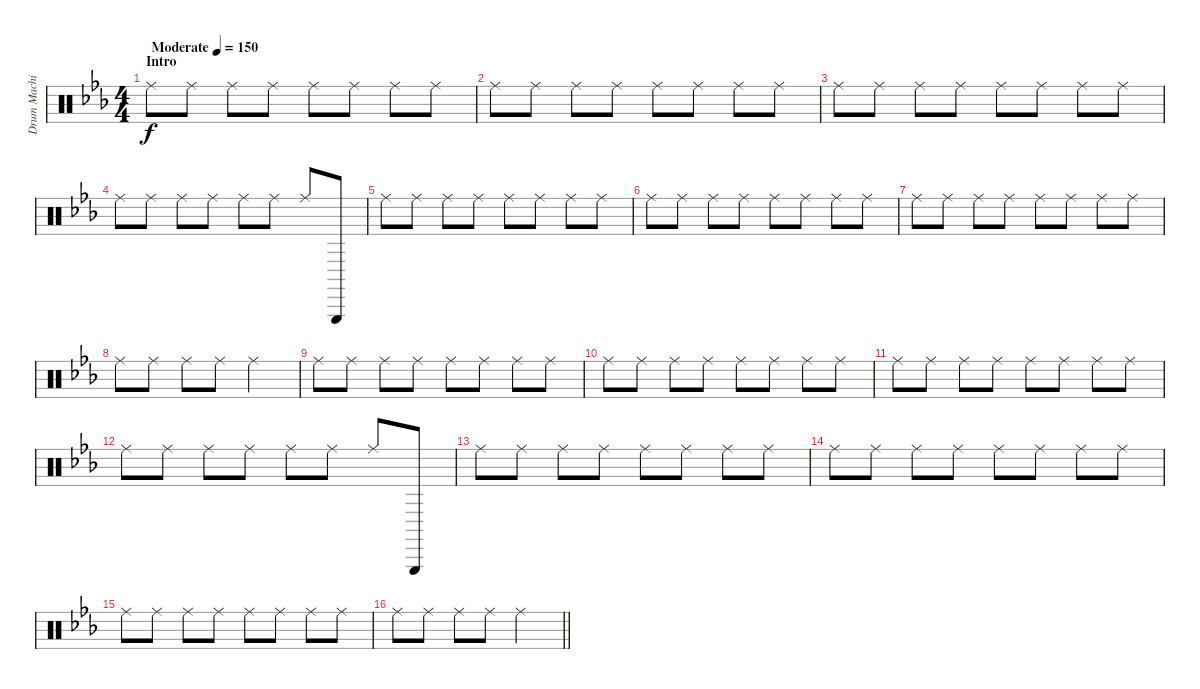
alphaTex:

\track ("Drum Machine" "Drum Machi") {instrument percussion}
\staff {score}
\articulation defaults
\ts (4 4)
\section ("" "Intro")
\tempo (150 "Moderate")
\clef neutral
\ks eb "Ride (middle)".8{dy f} "Ride (middle)".8 "Ride (middle)".8 "Ride (middle)".8 "Ride (middle)".8 "Ride (middle)".8 "Ride (middle)".8 "Ride (middle)".8
|
"Ride (middle)".8 "Ride (middle)".8 "Ride (middle)".8 "Ride (middle)".8 "Ride (middle)".8 "Ride (middle)".8 "Ride (middle)".8 "Ride (middle)".8 |
"Ride (middle)".8 "Ride (middle)".8 "Ride (middle)".8 "Ride (middle)".8 "Ride (middle)".8 "Ride (middle)".8 "Ride (middle)".8 "Ride (middle)".8 |
"Ride (middle)".8 "Ride (middle)".8 "Ride (middle)".8 "Ride (middle)".8 "Ride (middle)".8 "Ride (middle)".8 "Ride (middle)".8 "Triangle (hit)".8 |
"Ride (middle)".8 "Ride (middle)".8 "Ride (middle)".8 "Ride (middle)".8 "Ride (middle)".8 "Ride (middle)".8 "Ride (middle)".8 "Ride (middle)".8 |
"Ride (middle)".8 "Ride (middle)".8 "Ride (middle)".8 "Ride (middle)".8 "Ride (middle)".8 "Ride (middle)".8 "Ride (middle)".8 "Ride (middle)".8 |
"Ride (middle)".8 "Ride (middle)".8 "Ride (middle)".8 "Ride (middle)".8 "Ride (middle)".8 "Ride (middle)".8 "Ride (middle)".8 "Ride (middle)".8 |
"Ride (middle)".8 "Ride (middle)".8 "Ride (middle)".8 "Ride (middle)".8 "Ride (middle)".2 |
"Ride (middle)".8 "Ride (middle)".8 "Ride (middle)".8 "Ride (middle)".8 "Ride (middle)".8 "Ride (middle)".8 "Ride (middle)".8 "Ride (middle)".8 |
"Ride (middle)".8 "Ride (middle)".8 "Ride (middle)".8 "Ride (middle)".8 "Ride (middle)".8 "Ride (middle)".8 "Ride (middle)".8 "Ride (middle)".8 |
"Ride (middle)".8 "Ride (middle)".8 "Ride (middle)".8 "Ride (middle)".8 "Ride (middle)".8 "Ride (middle)".8 "Ride (middle)".8 "Ride (middle)".8 |
"Ride (middle)".8 "Ride (middle)".8 "Ride (middle)".8 "Ride (middle)".8 "Ride (middle)".8 "Ride (middle)".8 "Ride (middle)".8 "Triangle (hit)".8 |
"Ride (middle)".8 "Ride (middle)".8 "Ride (middle)".8 "Ride (middle)".8 "Ride (middle)".8 "Ride (middle)".8 "Ride (middle)".8 "Ride (middle)".8 |
"Ride (middle)".8 "Ride (middle)".8 "Ride (middle)".8 "Ride (middle)".8 "Ride (middle)".8 "Ride (middle)".8 "Ride (middle)".8 "Ride (middle)".8 |
"Ride (middle)".8 "Ride (middle)".8 "Ride (middle)".8 "Ride (middle)".8 "Ride (middle)".8 "Ride (middle)".8 "Ride (middle)".8 "Ride (middle)".8 |
\barLineRight lightlight "Ride (middle)".8 "Ride (middle)".8 "Ride (middle)".8 "Ride (middle)".8 "Ride (middle)".2
